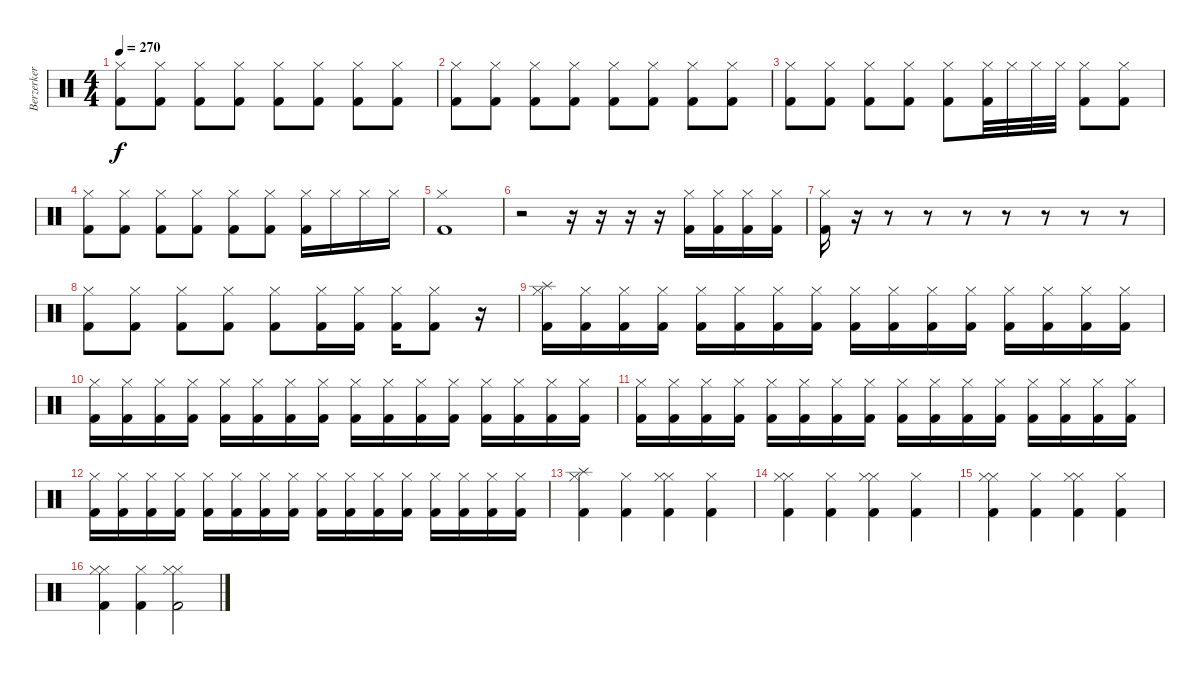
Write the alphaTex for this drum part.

\track ("Berzerker Drum Machine" "Berzerker ") {instrument percussion}
\staff {score}
\articulation defaults
\ts (4 4)
\tempo 270
\clef neutral
\ks c
("Kick (hit) 2" "Hi-Hat (closed)").8{dy f} ("Kick (hit) 2" "Hi-Hat (closed)").8 ("Kick (hit) 2" "Hi-Hat (closed)").8 ("Kick (hit) 2" "Hi-Hat (closed)").8 ("Kick (hit) 2" "Hi-Hat (closed)").8 ("Kick (hit) 2" "Hi-Hat (closed)").8 ("Kick (hit) 2" "Hi-Hat (closed)").8 ("Kick (hit) 2" "Hi-Hat (closed)").8 |
("Kick (hit) 2" "Hi-Hat (closed)").8 ("Kick (hit) 2" "Hi-Hat (closed)").8 ("Kick (hit) 2" "Hi-Hat (closed)").8 ("Kick (hit) 2" "Hi-Hat (closed)").8 ("Kick (hit) 2" "Hi-Hat (closed)").8 ("Kick (hit) 2" "Hi-Hat (closed)").8 ("Kick (hit) 2" "Hi-Hat (closed)").8 ("Kick (hit) 2" "Hi-Hat (closed)").8 |
("Kick (hit) 2" "Hi-Hat (closed)").8 ("Kick (hit) 2" "Hi-Hat (closed)").8 ("Kick (hit) 2" "Hi-Hat (closed)").8 ("Kick (hit) 2" "Hi-Hat (closed)").8 ("Kick (hit) 2" "Hi-Hat (closed)").8 ("Kick (hit) 2" "Hi-Hat (closed)").32 "Hi-Hat (closed)".32 "Hi-Hat (closed)".32 "Hi-Hat (closed)".32 ("Kick (hit) 2" "Hi-Hat (closed)").8 ("Kick (hit) 2" "Hi-Hat (closed)").8 |
("Kick (hit) 2" "Hi-Hat (closed)").8 ("Kick (hit) 2" "Hi-Hat (closed)").8 ("Kick (hit) 2" "Hi-Hat (closed)").8 ("Kick (hit) 2" "Hi-Hat (closed)").8 ("Kick (hit) 2" "Hi-Hat (closed)").8 ("Kick (hit) 2" "Hi-Hat (closed)").8 ("Kick (hit) 2" "Hi-Hat (closed)").16 "Hi-Hat (closed)".16 "Hi-Hat (closed)".16 "Hi-Hat (closed)".16 |
("Kick (hit) 2" "Hi-Hat (closed)").1 |
r.2 r.16 r.16 r.16 r.16 ("Kick (hit) 2" "Hi-Hat (closed)").16 ("Kick (hit) 2" "Hi-Hat (closed)").16 ("Kick (hit) 2" "Hi-Hat (closed)").16 ("Kick (hit) 2" "Hi-Hat (closed)").16 |
("Kick (hit) 2" "Hi-Hat (closed)").16 r.16 r.8 r.8 r.8 r.8 r.8 r.8 r.8 |
("Kick (hit) 2" "Hi-Hat (closed)").8 ("Kick (hit) 2" "Hi-Hat (closed)").8 ("Kick (hit) 2" "Hi-Hat (closed)").8 ("Kick (hit) 2" "Hi-Hat (closed)").8 ("Kick (hit) 2" "Hi-Hat (closed)").8 ("Kick (hit) 2" "Hi-Hat (closed)").16 ("Kick (hit) 2" "Hi-Hat (closed)").16 ("Kick (hit) 2" "Hi-Hat (closed)").16 ("Kick (hit) 2" "Hi-Hat (closed)").8 r.16 |
("Splash (hit)" "Kick (hit) 2" "Hi-Hat (closed)").16 ("Kick (hit) 2" "Hi-Hat (closed)").16 ("Kick (hit) 2" "Hi-Hat (closed)").16 ("Kick (hit) 2" "Hi-Hat (closed)").16 ("Kick (hit) 2" "Hi-Hat (closed)").16 ("Kick (hit) 2" "Hi-Hat (closed)").16 ("Kick (hit) 2" "Hi-Hat (closed)").16 ("Kick (hit) 2" "Hi-Hat (closed)").16 ("Kick (hit) 2" "Hi-Hat (closed)").16 ("Kick (hit) 2" "Hi-Hat (closed)").16 ("Kick (hit) 2" "Hi-Hat (closed)").16 ("Kick (hit) 2" "Hi-Hat (closed)").16 ("Kick (hit) 2" "Hi-Hat (closed)").16 ("Kick (hit) 2" "Hi-Hat (closed)").16 ("Kick (hit) 2" "Hi-Hat (closed)").16 ("Kick (hit) 2" "Hi-Hat (closed)").16 |
("Kick (hit) 2" "Hi-Hat (closed)").16 ("Kick (hit) 2" "Hi-Hat (closed)").16 ("Kick (hit) 2" "Hi-Hat (closed)").16 ("Kick (hit) 2" "Hi-Hat (closed)").16 ("Kick (hit) 2" "Hi-Hat (closed)").16 ("Kick (hit) 2" "Hi-Hat (closed)").16 ("Kick (hit) 2" "Hi-Hat (closed)").16 ("Kick (hit) 2" "Hi-Hat (closed)").16 ("Kick (hit) 2" "Hi-Hat (closed)").16 ("Kick (hit) 2" "Hi-Hat (closed)").16 ("Kick (hit) 2" "Hi-Hat (closed)").16 ("Kick (hit) 2" "Hi-Hat (closed)").16 ("Kick (hit) 2" "Hi-Hat (closed)").16 ("Kick (hit) 2" "Hi-Hat (closed)").16 ("Kick (hit) 2" "Hi-Hat (closed)").16 ("Kick (hit) 2" "Hi-Hat (closed)").16 |
("Kick (hit) 2" "Hi-Hat (closed)").16 ("Kick (hit) 2" "Hi-Hat (closed)").16 ("Kick (hit) 2" "Hi-Hat (closed)").16 ("Kick (hit) 2" "Hi-Hat (closed)").16 ("Kick (hit) 2" "Hi-Hat (closed)").16 ("Kick (hit) 2" "Hi-Hat (closed)").16 ("Kick (hit) 2" "Hi-Hat (closed)").16 ("Kick (hit) 2" "Hi-Hat (closed)").16 ("Kick (hit) 2" "Hi-Hat (closed)").16 ("Kick (hit) 2" "Hi-Hat (closed)").16 ("Kick (hit) 2" "Hi-Hat (closed)").16 ("Kick (hit) 2" "Hi-Hat (closed)").16 ("Kick (hit) 2" "Hi-Hat (closed)").16 ("Kick (hit) 2" "Hi-Hat (closed)").16 ("Kick (hit) 2" "Hi-Hat (closed)").16 ("Kick (hit) 2" "Hi-Hat (closed)").16 |
("Kick (hit) 2" "Hi-Hat (closed)").16 ("Kick (hit) 2" "Hi-Hat (closed)").16 ("Kick (hit) 2" "Hi-Hat (closed)").16 ("Kick (hit) 2" "Hi-Hat (closed)").16 ("Kick (hit) 2" "Hi-Hat (closed)").16 ("Kick (hit) 2" "Hi-Hat (closed)").16 ("Kick (hit) 2" "Hi-Hat (closed)").16 ("Kick (hit) 2" "Hi-Hat (closed)").16 ("Kick (hit) 2" "Hi-Hat (closed)").16 ("Kick (hit) 2" "Hi-Hat (closed)").16 ("Kick (hit) 2" "Hi-Hat (closed)").16 ("Kick (hit) 2" "Hi-Hat (closed)").16 ("Kick (hit) 2" "Hi-Hat (closed)").16 ("Kick (hit) 2" "Hi-Hat (closed)").16 ("Kick (hit) 2" "Hi-Hat (closed)").16 ("Kick (hit) 2" "Hi-Hat (closed)").16 |
("Splash (hit)" "Kick (hit) 2" "Hi-Hat (closed)").4 ("Kick (hit) 2" "Hi-Hat (closed)").4 ("Hi-Hat (closed)" "Kick (hit) 2" "Hi-Hat (closed)").4 ("Kick (hit) 2" "Hi-Hat (closed)").4 |
("Hi-Hat (closed)" "Kick (hit) 2" "Hi-Hat (closed)").4 ("Kick (hit) 2" "Hi-Hat (closed)").4 ("Hi-Hat (closed)" "Kick (hit) 2" "Hi-Hat (closed)").4 ("Kick (hit) 2" "Hi-Hat (closed)").4 |
("Hi-Hat (closed)" "Kick (hit) 2" "Hi-Hat (closed)").4 ("Kick (hit) 2" "Hi-Hat (closed)").4 ("Hi-Hat (closed)" "Kick (hit) 2" "Hi-Hat (closed)").4 ("Kick (hit) 2" "Hi-Hat (closed)").4 |
("Hi-Hat (closed)" "Kick (hit) 2" "Hi-Hat (closed)").4 ("Kick (hit) 2" "Hi-Hat (closed)").4 ("Hi-Hat (closed)" "Kick (hit) 2" "Hi-Hat (closed)").2
